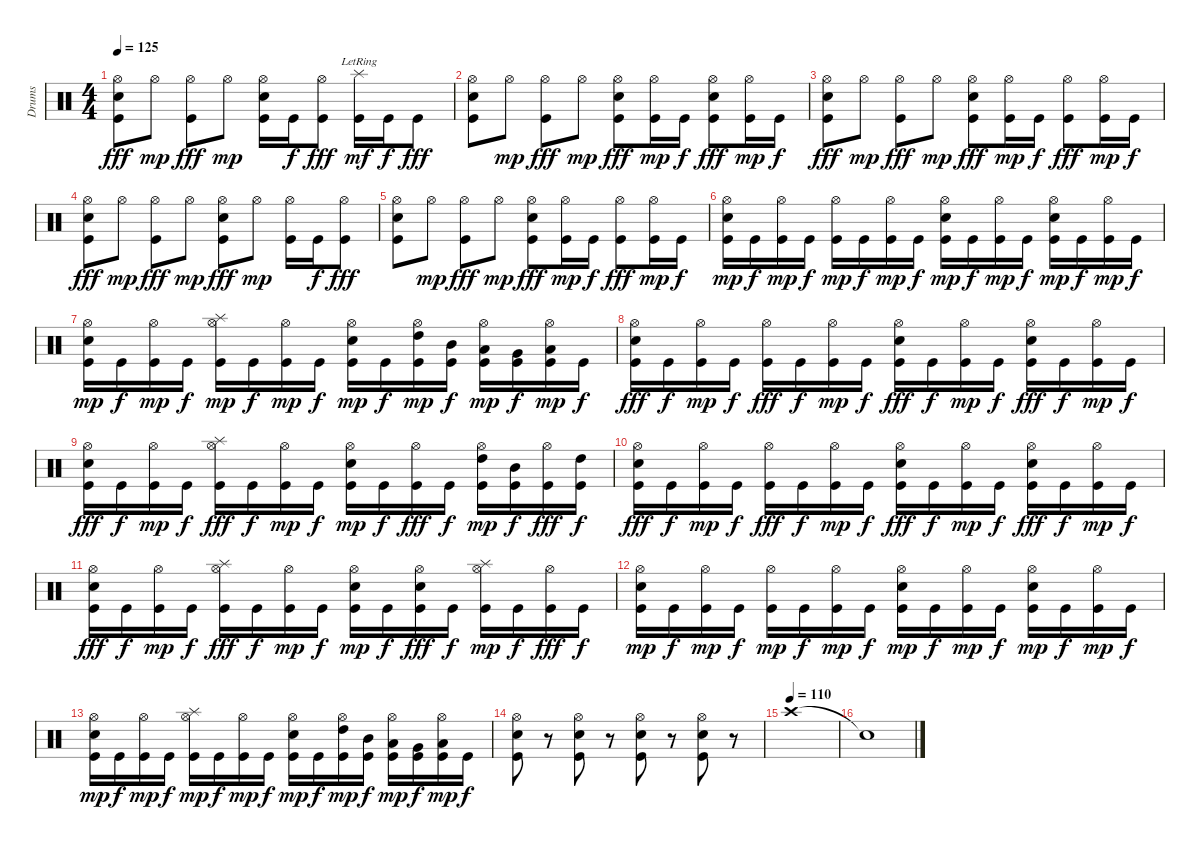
\track ("Drums" "Drums") {instrument percussion}
\staff {score}
\articulation defaults
\ts (4 4)
\tempo 125
\clef neutral
\ks c
("Hi-Hat (open)" "Snare (hit) 2" "Kick (hit)").8{dy fff} "Hi-Hat (open)".8{dy mp} ("Hi-Hat (open)" "Kick (hit)").8{dy fff} "Hi-Hat (open)".8{dy mp} ("Hi-Hat (open)" "Snare (hit) 2" "Kick (hit)").16 "Kick (hit)".16{dy f} ("Hi-Hat (open)" "Kick (hit)").8{dy fff} ("Splash (hit)"{lr} "Kick (hit)").16{dy mf} "Kick (hit)".16{dy f} "Kick (hit)".8{dy fff} |
("Hi-Hat (open)" "Snare (hit) 2" "Kick (hit)").8 "Hi-Hat (open)".8{dy mp} ("Hi-Hat (open)" "Kick (hit)").8{dy fff} "Hi-Hat (open)".8{dy mp} ("Hi-Hat (open)" "Snare (hit) 2" "Kick (hit)").8{dy fff} ("Hi-Hat (open)" "Kick (hit)").16{dy mp} "Kick (hit)".16{dy f} ("Hi-Hat (open)" "Snare (hit) 2" "Kick (hit)").8{dy fff} ("Hi-Hat (open)" "Kick (hit)").16{dy mp} "Kick (hit)".16{dy f} |
("Hi-Hat (open)" "Snare (hit) 2" "Kick (hit)").8{dy fff} "Hi-Hat (open)".8{dy mp} ("Hi-Hat (open)" "Kick (hit)").8{dy fff} "Hi-Hat (open)".8{dy mp} ("Hi-Hat (open)" "Snare (hit) 2" "Kick (hit)").8{dy fff} ("Hi-Hat (open)" "Kick (hit)").16{dy mp} "Kick (hit)".16{dy f} ("Hi-Hat (open)" "Kick (hit)").8{dy fff} ("Hi-Hat (open)" "Kick (hit)").16{dy mp} "Kick (hit)".16{dy f} |
("Hi-Hat (open)" "Snare (hit) 2" "Kick (hit)").8{dy fff} "Hi-Hat (open)".8{dy mp} ("Hi-Hat (open)" "Kick (hit)").8{dy fff} "Hi-Hat (open)".8{dy mp} ("Hi-Hat (open)" "Snare (hit) 2" "Kick (hit)").8{dy fff} "Hi-Hat (open)".8{dy mp} ("Hi-Hat (open)" "Kick (hit)").16 "Kick (hit)".16{dy f} ("Hi-Hat (open)" "Kick (hit)").8{dy fff} |
("Hi-Hat (open)" "Snare (hit) 2" "Kick (hit)").8 "Hi-Hat (open)".8{dy mp} ("Hi-Hat (open)" "Kick (hit)").8{dy fff} "Hi-Hat (open)".8{dy mp} ("Hi-Hat (open)" "Snare (hit) 2" "Kick (hit)").8{dy fff} ("Hi-Hat (open)" "Kick (hit)").16{dy mp} "Kick (hit)".16{dy f} ("Hi-Hat (open)" "Kick (hit)").8{dy fff} ("Hi-Hat (open)" "Kick (hit)").16{dy mp} "Kick (hit)".16{dy f} |
("Hi-Hat (open)" "Snare (hit) 2" "Kick (hit)").16{dy mp} "Kick (hit)".16{dy f} ("Hi-Hat (open)" "Kick (hit)").16{dy mp} "Kick (hit)".16{dy f} ("Hi-Hat (open)" "Kick (hit)").16{dy mp} "Kick (hit)".16{dy f} ("Hi-Hat (open)" "Kick (hit)").16{dy mp} "Kick (hit)".16{dy f} ("Hi-Hat (open)" "Snare (hit) 2" "Kick (hit)").16{dy mp} "Kick (hit)".16{dy f} ("Hi-Hat (open)" "Kick (hit)").16{dy mp} "Kick (hit)".16{dy f} ("Hi-Hat (open)" "Snare (hit) 2" "Kick (hit)").16{dy mp} "Kick (hit)".16{dy f} ("Hi-Hat (open)" "Kick (hit)").16{dy mp} "Kick (hit)".16{dy f} |
("Hi-Hat (open)" "Snare (hit) 2" "Kick (hit)").16{dy mp} "Kick (hit)".16{dy f} ("Hi-Hat (open)" "Kick (hit)").16{dy mp} "Kick (hit)".16{dy f} ("Hi-Hat (open)" "Splash (hit)" "Kick (hit)").16{dy mp} "Kick (hit)".16{dy f} ("Hi-Hat (open)" "Kick (hit)").16{dy mp} "Kick (hit)".16{dy f} ("Hi-Hat (open)" "Snare (hit) 2" "Kick (hit)").16{dy mp} "Kick (hit)".16{dy f} ("Hi-Hat (open)" "High Tom (hit)" "Kick (hit)").16{dy mp} ("Mid Tom (hit)" "Kick (hit)").16{dy f} ("Hi-Hat (open)" "Low Tom (hit)" "Kick (hit)").16{dy mp} ("Very Low Tom (hit)" "Kick (hit)").16{dy f} ("Hi-Hat (open)" "Low Floor Tom (hit)" "Kick (hit)").16{dy mp} "Kick (hit)".16{dy f} |
("Hi-Hat (open)" "Snare (hit) 2" "Kick (hit)").16{dy fff} "Kick (hit)".16{dy f} ("Hi-Hat (open)" "Kick (hit)").16{dy mp} "Kick (hit)".16{dy f} ("Hi-Hat (open)" "Kick (hit)").16{dy fff} "Kick (hit)".16{dy f} ("Hi-Hat (open)" "Kick (hit)").16{dy mp} "Kick (hit)".16{dy f} ("Hi-Hat (open)" "Snare (hit) 2" "Kick (hit)").16{dy fff} "Kick (hit)".16{dy f} ("Hi-Hat (open)" "Kick (hit)").16{dy mp} "Kick (hit)".16{dy f} ("Hi-Hat (open)" "Snare (hit) 2" "Kick (hit)").16{dy fff} "Kick (hit)".16{dy f} ("Hi-Hat (open)" "Kick (hit)").16{dy mp} "Kick (hit)".16{dy f} |
("Hi-Hat (open)" "Snare (hit) 2" "Kick (hit)").16{dy fff} "Kick (hit)".16{dy f} ("Hi-Hat (open)" "Kick (hit)").16{dy mp} "Kick (hit)".16{dy f} ("Hi-Hat (open)" "Splash (hit)" "Kick (hit)").16{dy fff} "Kick (hit)".16{dy f} ("Hi-Hat (open)" "Kick (hit)").16{dy mp} "Kick (hit)".16{dy f} ("Hi-Hat (open)" "Snare (hit) 2" "Kick (hit)").16{dy mp} "Kick (hit)".16{dy f} ("Hi-Hat (open)" "Kick (hit)").16{dy fff} "Kick (hit)".16{dy f} ("Hi-Hat (open)" "High Tom (hit)" "Kick (hit)").16{dy mp} ("Mid Tom (hit)" "Kick (hit)").16{dy f} ("Hi-Hat (open)" "Kick (hit)").16{dy fff} ("High Tom (hit)" "Kick (hit)").16{dy f} |
("Hi-Hat (open)" "Snare (hit) 2" "Kick (hit)").16{dy fff} "Kick (hit)".16{dy f} ("Hi-Hat (open)" "Kick (hit)").16{dy mp} "Kick (hit)".16{dy f} ("Hi-Hat (open)" "Kick (hit)").16{dy fff} "Kick (hit)".16{dy f} ("Hi-Hat (open)" "Kick (hit)").16{dy mp} "Kick (hit)".16{dy f} ("Hi-Hat (open)" "Snare (hit) 2" "Kick (hit)").16{dy fff} "Kick (hit)".16{dy f} ("Hi-Hat (open)" "Kick (hit)").16{dy mp} "Kick (hit)".16{dy f} ("Hi-Hat (open)" "Snare (hit) 2" "Kick (hit)").16{dy fff} "Kick (hit)".16{dy f} ("Hi-Hat (open)" "Kick (hit)").16{dy mp} "Kick (hit)".16{dy f} |
("Hi-Hat (open)" "Snare (hit) 2" "Kick (hit)").16{dy fff} "Kick (hit)".16{dy f} ("Hi-Hat (open)" "Kick (hit)").16{dy mp} "Kick (hit)".16{dy f} ("Hi-Hat (open)" "Splash (hit)" "Kick (hit)").16{dy fff} "Kick (hit)".16{dy f} ("Hi-Hat (open)" "Kick (hit)").16{dy mp} "Kick (hit)".16{dy f} ("Hi-Hat (open)" "Snare (hit) 2" "Kick (hit)").16{dy mp} "Kick (hit)".16{dy f} ("Hi-Hat (open)" "Snare (hit) 2" "Kick (hit)").16{dy fff} "Kick (hit)".16{dy f} ("Hi-Hat (open)" "Splash (hit)" "Kick (hit)").16{dy mp} "Kick (hit)".16{dy f} ("Hi-Hat (open)" "Kick (hit)").16{dy fff} "Kick (hit)".16{dy f} |
("Hi-Hat (open)" "Snare (hit) 2" "Kick (hit)").16{dy mp} "Kick (hit)".16{dy f} ("Hi-Hat (open)" "Kick (hit)").16{dy mp} "Kick (hit)".16{dy f} ("Hi-Hat (open)" "Kick (hit)").16{dy mp} "Kick (hit)".16{dy f} ("Hi-Hat (open)" "Kick (hit)").16{dy mp} "Kick (hit)".16{dy f} ("Hi-Hat (open)" "Snare (hit) 2" "Kick (hit)").16{dy mp} "Kick (hit)".16{dy f} ("Hi-Hat (open)" "Kick (hit)").16{dy mp} "Kick (hit)".16{dy f} ("Hi-Hat (open)" "Snare (hit) 2" "Kick (hit)").16{dy mp} "Kick (hit)".16{dy f} ("Hi-Hat (open)" "Kick (hit)").16{dy mp} "Kick (hit)".16{dy f} |
("Hi-Hat (open)" "Snare (hit) 2" "Kick (hit)").16{dy mp} "Kick (hit)".16{dy f} ("Hi-Hat (open)" "Kick (hit)").16{dy mp} "Kick (hit)".16{dy f} ("Hi-Hat (open)" "Splash (hit)" "Kick (hit)").16{dy mp} "Kick (hit)".16{dy f} ("Hi-Hat (open)" "Kick (hit)").16{dy mp} "Kick (hit)".16{dy f} ("Hi-Hat (open)" "Snare (hit) 2" "Kick (hit)").16{dy mp} "Kick (hit)".16{dy f} ("Hi-Hat (open)" "High Tom (hit)" "Kick (hit)").16{dy mp} ("Mid Tom (hit)" "Kick (hit)").16{dy f} ("Hi-Hat (open)" "Low Tom (hit)" "Kick (hit)").16{dy mp} ("Very Low Tom (hit)" "Kick (hit)").16{dy f} ("Hi-Hat (open)" "Low Floor Tom (hit)" "Kick (hit)").16{dy mp} "Kick (hit)".16{dy f} |
("Hi-Hat (open)" "Snare (hit) 2" "Kick (hit)").8 r.8 ("Hi-Hat (open)" "Snare (hit) 2" "Kick (hit)").8 r.8 ("Hi-Hat (open)" "Snare (hit) 2" "Kick (hit)").8 r.8 ("Hi-Hat (open)" "Snare (hit) 2" "Kick (hit)").8 r.8 |
\tempo (110)
"Crash high (hit)".1 |
"Snare (hit)"{t}.1
